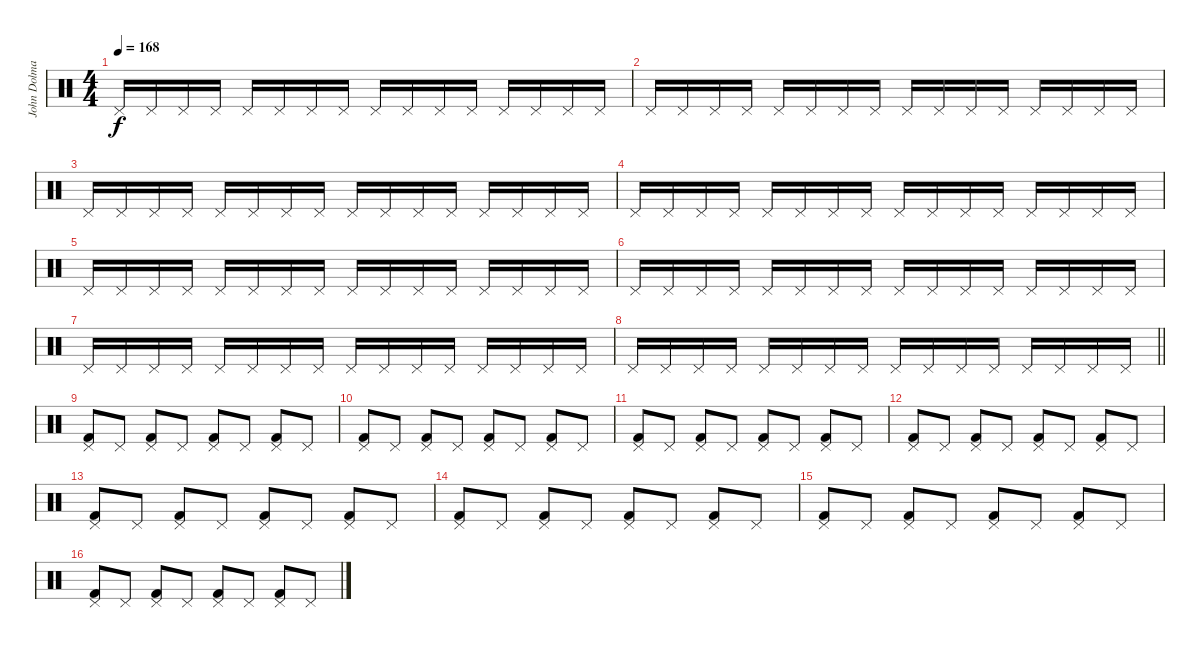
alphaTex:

\track ("John Dolmayan" "John Dolma") {instrument percussion}
\staff {score}
\articulation defaults
\ts (4 4)
\tempo 168
\clef neutral
\ks c "Pedal Hi-Hat (hit)".16{dy f} "Pedal Hi-Hat (hit)".16 "Pedal Hi-Hat (hit)".16 "Pedal Hi-Hat (hit)".16 "Pedal Hi-Hat (hit)".16 "Pedal Hi-Hat (hit)".16 "Pedal Hi-Hat (hit)".16 "Pedal Hi-Hat (hit)".16 "Pedal Hi-Hat (hit)".16 "Pedal Hi-Hat (hit)".16 "Pedal Hi-Hat (hit)".16 "Pedal Hi-Hat (hit)".16 "Pedal Hi-Hat (hit)".16 "Pedal Hi-Hat (hit)".16 "Pedal Hi-Hat (hit)".16 "Pedal Hi-Hat (hit)".16
|
"Pedal Hi-Hat (hit)".16 "Pedal Hi-Hat (hit)".16 "Pedal Hi-Hat (hit)".16 "Pedal Hi-Hat (hit)".16 "Pedal Hi-Hat (hit)".16 "Pedal Hi-Hat (hit)".16 "Pedal Hi-Hat (hit)".16 "Pedal Hi-Hat (hit)".16 "Pedal Hi-Hat (hit)".16 "Pedal Hi-Hat (hit)".16 "Pedal Hi-Hat (hit)".16 "Pedal Hi-Hat (hit)".16 "Pedal Hi-Hat (hit)".16 "Pedal Hi-Hat (hit)".16 "Pedal Hi-Hat (hit)".16 "Pedal Hi-Hat (hit)".16 |
"Pedal Hi-Hat (hit)".16 "Pedal Hi-Hat (hit)".16 "Pedal Hi-Hat (hit)".16 "Pedal Hi-Hat (hit)".16 "Pedal Hi-Hat (hit)".16 "Pedal Hi-Hat (hit)".16 "Pedal Hi-Hat (hit)".16 "Pedal Hi-Hat (hit)".16 "Pedal Hi-Hat (hit)".16 "Pedal Hi-Hat (hit)".16 "Pedal Hi-Hat (hit)".16 "Pedal Hi-Hat (hit)".16 "Pedal Hi-Hat (hit)".16 "Pedal Hi-Hat (hit)".16 "Pedal Hi-Hat (hit)".16 "Pedal Hi-Hat (hit)".16 |
"Pedal Hi-Hat (hit)".16 "Pedal Hi-Hat (hit)".16 "Pedal Hi-Hat (hit)".16 "Pedal Hi-Hat (hit)".16 "Pedal Hi-Hat (hit)".16 "Pedal Hi-Hat (hit)".16 "Pedal Hi-Hat (hit)".16 "Pedal Hi-Hat (hit)".16 "Pedal Hi-Hat (hit)".16 "Pedal Hi-Hat (hit)".16 "Pedal Hi-Hat (hit)".16 "Pedal Hi-Hat (hit)".16 "Pedal Hi-Hat (hit)".16 "Pedal Hi-Hat (hit)".16 "Pedal Hi-Hat (hit)".16 "Pedal Hi-Hat (hit)".16 |
"Pedal Hi-Hat (hit)".16 "Pedal Hi-Hat (hit)".16 "Pedal Hi-Hat (hit)".16 "Pedal Hi-Hat (hit)".16 "Pedal Hi-Hat (hit)".16 "Pedal Hi-Hat (hit)".16 "Pedal Hi-Hat (hit)".16 "Pedal Hi-Hat (hit)".16 "Pedal Hi-Hat (hit)".16 "Pedal Hi-Hat (hit)".16 "Pedal Hi-Hat (hit)".16 "Pedal Hi-Hat (hit)".16 "Pedal Hi-Hat (hit)".16 "Pedal Hi-Hat (hit)".16 "Pedal Hi-Hat (hit)".16 "Pedal Hi-Hat (hit)".16 |
"Pedal Hi-Hat (hit)".16 "Pedal Hi-Hat (hit)".16 "Pedal Hi-Hat (hit)".16 "Pedal Hi-Hat (hit)".16 "Pedal Hi-Hat (hit)".16 "Pedal Hi-Hat (hit)".16 "Pedal Hi-Hat (hit)".16 "Pedal Hi-Hat (hit)".16 "Pedal Hi-Hat (hit)".16 "Pedal Hi-Hat (hit)".16 "Pedal Hi-Hat (hit)".16 "Pedal Hi-Hat (hit)".16 "Pedal Hi-Hat (hit)".16 "Pedal Hi-Hat (hit)".16 "Pedal Hi-Hat (hit)".16 "Pedal Hi-Hat (hit)".16 |
"Pedal Hi-Hat (hit)".16 "Pedal Hi-Hat (hit)".16 "Pedal Hi-Hat (hit)".16 "Pedal Hi-Hat (hit)".16 "Pedal Hi-Hat (hit)".16 "Pedal Hi-Hat (hit)".16 "Pedal Hi-Hat (hit)".16 "Pedal Hi-Hat (hit)".16 "Pedal Hi-Hat (hit)".16 "Pedal Hi-Hat (hit)".16 "Pedal Hi-Hat (hit)".16 "Pedal Hi-Hat (hit)".16 "Pedal Hi-Hat (hit)".16 "Pedal Hi-Hat (hit)".16 "Pedal Hi-Hat (hit)".16 "Pedal Hi-Hat (hit)".16 |
\barLineRight lightlight "Pedal Hi-Hat (hit)".16 "Pedal Hi-Hat (hit)".16 "Pedal Hi-Hat (hit)".16 "Pedal Hi-Hat (hit)".16 "Pedal Hi-Hat (hit)".16 "Pedal Hi-Hat (hit)".16 "Pedal Hi-Hat (hit)".16 "Pedal Hi-Hat (hit)".16 "Pedal Hi-Hat (hit)".16 "Pedal Hi-Hat (hit)".16 "Pedal Hi-Hat (hit)".16 "Pedal Hi-Hat (hit)".16 "Pedal Hi-Hat (hit)".16 "Pedal Hi-Hat (hit)".16 "Pedal Hi-Hat (hit)".16 "Pedal Hi-Hat (hit)".16
|
("Pedal Hi-Hat (hit)" "Kick (hit) 2").8 "Pedal Hi-Hat (hit)".8 ("Pedal Hi-Hat (hit)" "Kick (hit) 2").8 "Pedal Hi-Hat (hit)".8 ("Pedal Hi-Hat (hit)" "Kick (hit) 2").8 "Pedal Hi-Hat (hit)".8 ("Pedal Hi-Hat (hit)" "Kick (hit) 2").8 "Pedal Hi-Hat (hit)".8 |
("Pedal Hi-Hat (hit)" "Kick (hit) 2").8 "Pedal Hi-Hat (hit)".8 ("Pedal Hi-Hat (hit)" "Kick (hit) 2").8 "Pedal Hi-Hat (hit)".8 ("Pedal Hi-Hat (hit)" "Kick (hit) 2").8 "Pedal Hi-Hat (hit)".8 ("Pedal Hi-Hat (hit)" "Kick (hit) 2").8 "Pedal Hi-Hat (hit)".8 |
("Pedal Hi-Hat (hit)" "Kick (hit) 2").8 "Pedal Hi-Hat (hit)".8 ("Pedal Hi-Hat (hit)" "Kick (hit) 2").8 "Pedal Hi-Hat (hit)".8 ("Pedal Hi-Hat (hit)" "Kick (hit) 2").8 "Pedal Hi-Hat (hit)".8 ("Pedal Hi-Hat (hit)" "Kick (hit) 2").8 "Pedal Hi-Hat (hit)".8 |
("Pedal Hi-Hat (hit)" "Kick (hit) 2").8 "Pedal Hi-Hat (hit)".8 ("Pedal Hi-Hat (hit)" "Kick (hit) 2").8 "Pedal Hi-Hat (hit)".8 ("Pedal Hi-Hat (hit)" "Kick (hit) 2").8 "Pedal Hi-Hat (hit)".8 ("Pedal Hi-Hat (hit)" "Kick (hit) 2").8 "Pedal Hi-Hat (hit)".8 |
("Pedal Hi-Hat (hit)" "Kick (hit) 2").8 "Pedal Hi-Hat (hit)".8 ("Pedal Hi-Hat (hit)" "Kick (hit) 2").8 "Pedal Hi-Hat (hit)".8 ("Pedal Hi-Hat (hit)" "Kick (hit) 2").8 "Pedal Hi-Hat (hit)".8 ("Pedal Hi-Hat (hit)" "Kick (hit) 2").8 "Pedal Hi-Hat (hit)".8 |
("Pedal Hi-Hat (hit)" "Kick (hit) 2").8 "Pedal Hi-Hat (hit)".8 ("Pedal Hi-Hat (hit)" "Kick (hit) 2").8 "Pedal Hi-Hat (hit)".8 ("Pedal Hi-Hat (hit)" "Kick (hit) 2").8 "Pedal Hi-Hat (hit)".8 ("Pedal Hi-Hat (hit)" "Kick (hit) 2").8 "Pedal Hi-Hat (hit)".8 |
("Pedal Hi-Hat (hit)" "Kick (hit) 2").8 "Pedal Hi-Hat (hit)".8 ("Pedal Hi-Hat (hit)" "Kick (hit) 2").8 "Pedal Hi-Hat (hit)".8 ("Pedal Hi-Hat (hit)" "Kick (hit) 2").8 "Pedal Hi-Hat (hit)".8 ("Pedal Hi-Hat (hit)" "Kick (hit) 2").8 "Pedal Hi-Hat (hit)".8 |
("Pedal Hi-Hat (hit)" "Kick (hit) 2").8 "Pedal Hi-Hat (hit)".8 ("Pedal Hi-Hat (hit)" "Kick (hit) 2").8 "Pedal Hi-Hat (hit)".8 ("Pedal Hi-Hat (hit)" "Kick (hit) 2").8 "Pedal Hi-Hat (hit)".8 ("Pedal Hi-Hat (hit)" "Kick (hit) 2").8 "Pedal Hi-Hat (hit)".8
